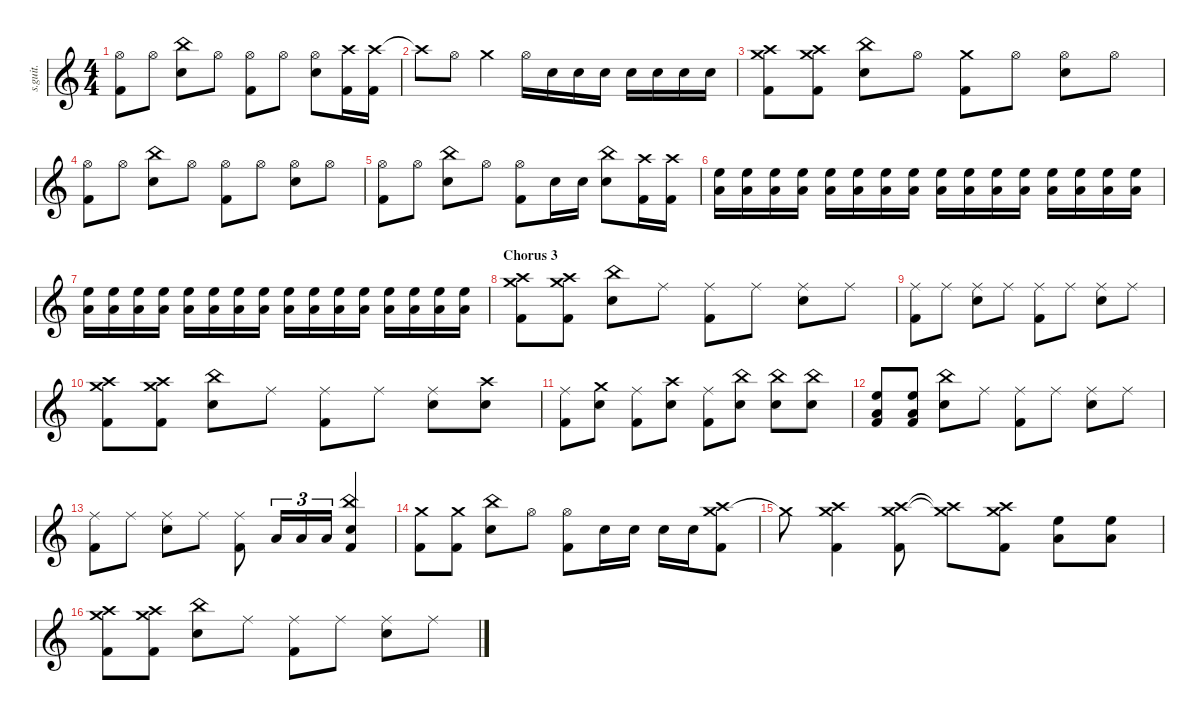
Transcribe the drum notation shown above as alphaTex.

\defaultSystemsLayout 4
\hideDynamics
\bracketExtendMode nobrackets
\track ("Mountain" "s.guit.") {instrument percussion}
\staff {score}
\articulation defaults
\ts (4 4)
\tempo (88 hide)
\clef g2
\ks c
("Hi-Hat (open)" "Kick (hit) 2").8{dy f} "Hi-Hat (open)".8 ("China (hit)" "Snare (hit) 2").8 "Hi-Hat (open)".8 ("Hi-Hat (open)" "Kick (hit) 2").8 "Hi-Hat (open)".8 ("Hi-Hat (open)" "Snare (hit) 2").8 ("Crash high (hit)" "Kick (hit) 2").16 ("Crash high (hit)" "Kick (hit) 2").16 |
"Crash high (hit)"{t}.8 "Hi-Hat (open)".8 "Crash medium (hit)".4 "Hi-Hat (open)".16 "Snare (hit) 2".16{dy p} "Snare (hit) 2".16 "Snare (hit) 2".16{dy mp} "Snare (hit) 2".16 "Snare (hit) 2".16{dy f} "Snare (hit) 2".16 "Snare (hit) 2".16 |
("Crash medium (hit)" "Crash high (hit)" "Kick (hit) 2").8 ("Crash medium (hit)" "Crash high (hit)" "Kick (hit) 2").8 ("China (hit)" "Snare (hit) 2").8 "Hi-Hat (open)".8 ("Crash medium (hit)" "Kick (hit) 2").8 "Hi-Hat (open)".8 ("Hi-Hat (open)" "Snare (hit) 2").8 "Hi-Hat (open)".8 |
("Hi-Hat (open)" "Kick (hit) 2").8 "Hi-Hat (open)".8 ("China (hit)" "Snare (hit) 2").8 "Hi-Hat (open)".8 ("Hi-Hat (open)" "Kick (hit) 2").8 "Hi-Hat (open)".8 ("Hi-Hat (open)" "Snare (hit) 2").8 "Hi-Hat (open)".8 |
("Hi-Hat (open)" "Kick (hit) 2").8 "Hi-Hat (open)".8 ("China (hit)" "Snare (hit) 2").8 "Hi-Hat (open)".8 ("Hi-Hat (open)" "Kick (hit) 2").8 "Snare (hit) 2".16 "Snare (hit) 2".16 ("China (hit)" "Snare (hit) 2").8 ("Crash high (hit)" "Kick (hit) 2").16 ("Crash high (hit)" "Kick (hit) 2").16 |
("High Floor Tom (hit)" "Low Tom (hit)").16{dy ppp} ("High Floor Tom (hit)" "Low Tom (hit)").16 ("High Floor Tom (hit)" "Low Tom (hit)").16 ("High Floor Tom (hit)" "Low Tom (hit)").16 ("High Floor Tom (hit)" "Low Tom (hit)").16 ("High Floor Tom (hit)" "Low Tom (hit)").16{dy pp} ("High Floor Tom (hit)" "Low Tom (hit)").16 ("High Floor Tom (hit)" "Low Tom (hit)").16 ("High Floor Tom (hit)" "Low Tom (hit)").16 ("High Floor Tom (hit)" "Low Tom (hit)").16 ("High Floor Tom (hit)" "Low Tom (hit)").16{dy p} ("High Floor Tom (hit)" "Low Tom (hit)").16 ("High Floor Tom (hit)" "Low Tom (hit)").16 ("High Floor Tom (hit)" "Low Tom (hit)").16 ("High Floor Tom (hit)" "Low Tom (hit)").16 ("High Floor Tom (hit)" "Low Tom (hit)").16{dy mp} |
("High Floor Tom (hit)" "Low Tom (hit)").16 ("High Floor Tom (hit)" "Low Tom (hit)").16 ("High Floor Tom (hit)" "Low Tom (hit)").16 ("High Floor Tom (hit)" "Low Tom (hit)").16 ("High Floor Tom (hit)" "Low Tom (hit)").16{dy mf} ("High Floor Tom (hit)" "Low Tom (hit)").16 ("High Floor Tom (hit)" "Low Tom (hit)").16 ("High Floor Tom (hit)" "Low Tom (hit)").16 ("High Floor Tom (hit)" "Low Tom (hit)").16{dy f} ("High Floor Tom (hit)" "Low Tom (hit)").16 ("High Floor Tom (hit)" "Low Tom (hit)").16 ("High Floor Tom (hit)" "Low Tom (hit)").16 ("High Floor Tom (hit)" "Low Tom (hit)").16 ("High Floor Tom (hit)" "Low Tom (hit)").16 ("High Floor Tom (hit)" "Low Tom (hit)").16 ("High Floor Tom (hit)" "Low Tom (hit)").16 |
\section ("" "Chorus 3")
("Crash medium (hit)" "Crash high (hit)" "Kick (hit) 2").8 ("Crash medium (hit)" "Crash high (hit)" "Kick (hit) 2").8 ("China (hit)" "Snare (hit) 2").8 "Ride (middle)".8 ("Ride (middle)" "Kick (hit) 2").8 "Ride (middle)".8 ("Ride (middle)" "Snare (hit) 2").8 "Ride (middle)".8 |
("Ride (middle)" "Kick (hit) 2").8 "Ride (middle)".8 ("Ride (middle)" "Snare (hit) 2").8 "Ride (middle)".8 ("Ride (middle)" "Kick (hit) 2").8 "Ride (middle)".8 ("Ride (middle)" "Snare (hit) 2").8 "Ride (middle)".8 |
("Crash medium (hit)" "Crash high (hit)" "Kick (hit) 2").8 ("Crash medium (hit)" "Crash high (hit)" "Kick (hit) 2").8 ("China (hit)" "Snare (hit) 2").8 "Ride (middle)".8 ("Ride (middle)" "Kick (hit) 2").8 "Ride (middle)".8 ("Ride (middle)" "Snare (hit) 2").8 ("Crash high (hit)" "Snare (hit) 2").8 |
("Ride (middle)" "Kick (hit) 2").8 ("Crash medium (hit)" "Snare (hit) 2").8 ("Ride (middle)" "Kick (hit) 2").8 ("Crash high (hit)" "Snare (hit) 2").8 ("Ride (middle)" "Kick (hit) 2").8 ("China (hit)" "Snare (hit) 2").8 ("China (hit)" "Snare (hit) 2").8 ("China (hit)" "Snare (hit) 2").8 |
("High Floor Tom (hit)" "Low Tom (hit)" "Kick (hit) 2").8 ("High Floor Tom (hit)" "Low Tom (hit)" "Kick (hit) 2").8 ("China (hit)" "Snare (hit) 2").8 "Ride (middle)".8 ("Ride (middle)" "Kick (hit) 2").8 "Ride (middle)".8 ("Ride (middle)" "Snare (hit) 2").8 "Ride (middle)".8 |
("Ride (middle)" "Kick (hit) 2").8 "Ride (middle)".8 ("Ride (middle)" "Snare (hit) 2").8 "Ride (middle)".8 ("Ride (middle)" "Kick (hit) 2").8 "Low Tom (hit)".16{tu (3 2)} "Low Tom (hit)".16{tu (3 2)} "Low Tom (hit)".16{tu (3 2)} ("China (hit)" "Snare (hit) 2" "Kick (hit) 2").4 |
("Crash medium (hit)" "Kick (hit) 2").8 ("Crash medium (hit)" "Kick (hit) 2").8 ("China (hit)" "Snare (hit) 2").8 "Hi-Hat (open)".8 ("Hi-Hat (open)" "Kick (hit) 2").8 "Snare (hit) 2".16 "Snare (hit) 2".16 "Snare (hit) 2".16 "Snare (hit) 2".16 ("Crash medium (hit)" "Crash high (hit)" "Kick (hit) 2").8 |
"Crash medium (hit)"{t}.8 ("Crash medium (hit)" "Crash high (hit)" "Kick (hit) 2").4 ("Crash medium (hit)" "Crash high (hit)" "Kick (hit) 2").8 ("Crash medium (hit)"{t} "Crash high (hit)"{t}).8 ("Crash medium (hit)" "Crash high (hit)" "Kick (hit) 2").8 ("High Floor Tom (hit)" "Low Tom (hit)").8 ("High Floor Tom (hit)" "Low Tom (hit)").8 |
("Crash medium (hit)" "Crash high (hit)" "Kick (hit) 2").8 ("Crash medium (hit)" "Crash high (hit)" "Kick (hit) 2").8 ("China (hit)" "Snare (hit) 2").8 "Ride (middle)".8 ("Ride (middle)" "Kick (hit) 2").8 "Ride (middle)".8 ("Ride (middle)" "Snare (hit) 2").8 "Ride (middle)".8
